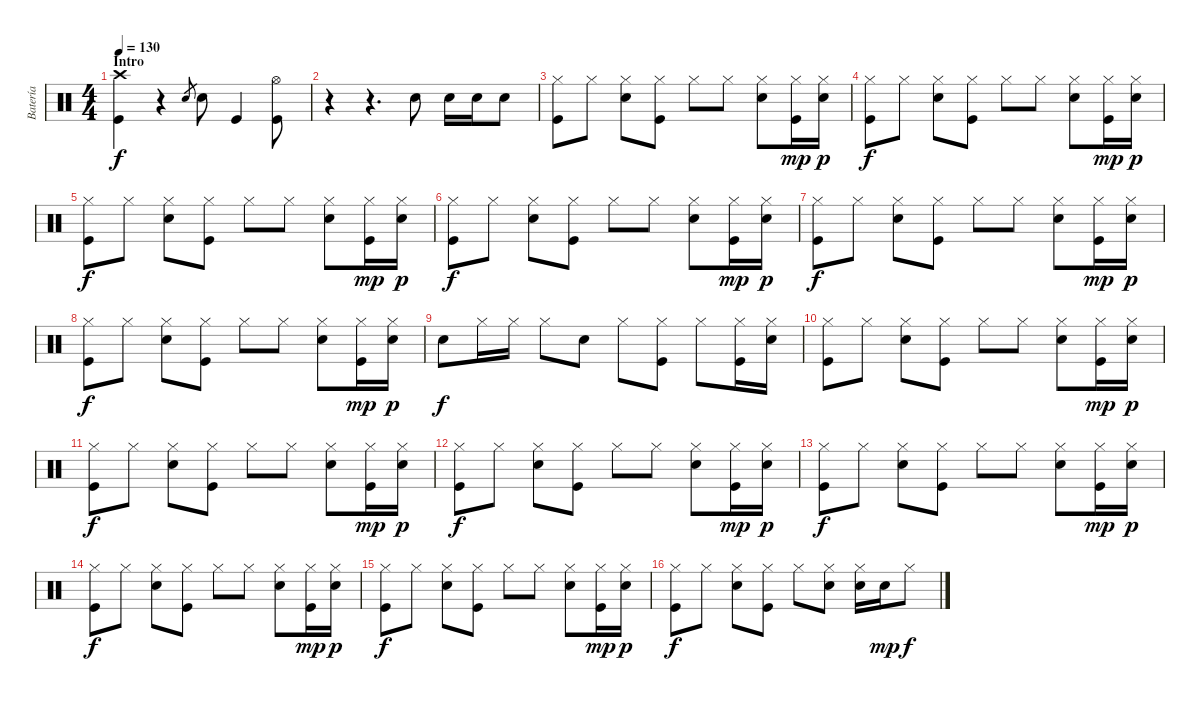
\track ("Batería" "Batería") {instrument percussion}
\staff {score}
\articulation defaults
\ts (4 4)
\section ("" "Intro")
\tempo 130
\clef neutral
\ks c
("Crash high (hit)" "Kick (hit)").4{dy f} r.4 "Snare (hit) 2".8{gr} "Snare (hit) 2".8 "Kick (hit)".4 ("Hi-Hat (open)" "Kick (hit)").8 |
r.4 r.4{d} "Snare (hit) 2".8 "Snare (hit) 2".16 "Snare (hit) 2".16 "Snare (hit) 2".8 |
("Hi-Hat (closed)" "Kick (hit)").8 "Hi-Hat (closed)".8 ("Hi-Hat (closed)" "Snare (hit) 2").8 ("Hi-Hat (closed)" "Kick (hit)").8 "Hi-Hat (closed)".8 "Hi-Hat (closed)".8 ("Hi-Hat (closed)" "Snare (hit) 2").8 ("Hi-Hat (closed)" "Kick (hit)").16{dy mp} ("Hi-Hat (closed)" "Snare (hit) 2").16{dy p} |
("Hi-Hat (closed)" "Kick (hit)").8{dy f} "Hi-Hat (closed)".8 ("Hi-Hat (closed)" "Snare (hit) 2").8 ("Hi-Hat (closed)" "Kick (hit)").8 "Hi-Hat (closed)".8 "Hi-Hat (closed)".8 ("Hi-Hat (closed)" "Snare (hit) 2").8 ("Hi-Hat (closed)" "Kick (hit)").16{dy mp} ("Hi-Hat (closed)" "Snare (hit) 2").16{dy p} |
("Hi-Hat (closed)" "Kick (hit)").8{dy f} "Hi-Hat (closed)".8 ("Hi-Hat (closed)" "Snare (hit) 2").8 ("Hi-Hat (closed)" "Kick (hit)").8 "Hi-Hat (closed)".8 "Hi-Hat (closed)".8 ("Hi-Hat (closed)" "Snare (hit) 2").8 ("Hi-Hat (closed)" "Kick (hit)").16{dy mp} ("Hi-Hat (closed)" "Snare (hit) 2").16{dy p} |
("Hi-Hat (closed)" "Kick (hit)").8{dy f} "Hi-Hat (closed)".8 ("Hi-Hat (closed)" "Snare (hit) 2").8 ("Hi-Hat (closed)" "Kick (hit)").8 "Hi-Hat (closed)".8 "Hi-Hat (closed)".8 ("Hi-Hat (closed)" "Snare (hit) 2").8 ("Hi-Hat (closed)" "Kick (hit)").16{dy mp} ("Hi-Hat (closed)" "Snare (hit) 2").16{dy p} |
("Hi-Hat (closed)" "Kick (hit)").8{dy f} "Hi-Hat (closed)".8 ("Hi-Hat (closed)" "Snare (hit) 2").8 ("Hi-Hat (closed)" "Kick (hit)").8 "Hi-Hat (closed)".8 "Hi-Hat (closed)".8 ("Hi-Hat (closed)" "Snare (hit) 2").8 ("Hi-Hat (closed)" "Kick (hit)").16{dy mp} ("Hi-Hat (closed)" "Snare (hit) 2").16{dy p} |
("Hi-Hat (closed)" "Kick (hit)").8{dy f} "Hi-Hat (closed)".8 ("Hi-Hat (closed)" "Snare (hit) 2").8 ("Hi-Hat (closed)" "Kick (hit)").8 "Hi-Hat (closed)".8 "Hi-Hat (closed)".8 ("Hi-Hat (closed)" "Snare (hit) 2").8 ("Hi-Hat (closed)" "Kick (hit)").16{dy mp} ("Hi-Hat (closed)" "Snare (hit) 2").16{dy p} |
"Snare (hit) 2".8{dy f} "Hi-Hat (closed)".16 "Hi-Hat (closed)".16 "Hi-Hat (closed)".8 "Snare (hit) 2".8 "Hi-Hat (closed)".8 ("Hi-Hat (closed)" "Kick (hit)").8 "Hi-Hat (closed)".8 ("Hi-Hat (closed)" "Kick (hit)").16 ("Hi-Hat (closed)" "Snare (hit) 2").16 |
("Hi-Hat (closed)" "Kick (hit)").8 "Hi-Hat (closed)".8 ("Hi-Hat (closed)" "Snare (hit) 2").8 ("Hi-Hat (closed)" "Kick (hit)").8 "Hi-Hat (closed)".8 "Hi-Hat (closed)".8 ("Hi-Hat (closed)" "Snare (hit) 2").8 ("Hi-Hat (closed)" "Kick (hit)").16{dy mp} ("Hi-Hat (closed)" "Snare (hit) 2").16{dy p} |
("Hi-Hat (closed)" "Kick (hit)").8{dy f} "Hi-Hat (closed)".8 ("Hi-Hat (closed)" "Snare (hit) 2").8 ("Hi-Hat (closed)" "Kick (hit)").8 "Hi-Hat (closed)".8 "Hi-Hat (closed)".8 ("Hi-Hat (closed)" "Snare (hit) 2").8 ("Hi-Hat (closed)" "Kick (hit)").16{dy mp} ("Hi-Hat (closed)" "Snare (hit) 2").16{dy p} |
("Hi-Hat (closed)" "Kick (hit)").8{dy f} "Hi-Hat (closed)".8 ("Hi-Hat (closed)" "Snare (hit) 2").8 ("Hi-Hat (closed)" "Kick (hit)").8 "Hi-Hat (closed)".8 "Hi-Hat (closed)".8 ("Hi-Hat (closed)" "Snare (hit) 2").8 ("Hi-Hat (closed)" "Kick (hit)").16{dy mp} ("Hi-Hat (closed)" "Snare (hit) 2").16{dy p} |
("Hi-Hat (closed)" "Kick (hit)").8{dy f} "Hi-Hat (closed)".8 ("Hi-Hat (closed)" "Snare (hit) 2").8 ("Hi-Hat (closed)" "Kick (hit)").8 "Hi-Hat (closed)".8 "Hi-Hat (closed)".8 ("Hi-Hat (closed)" "Snare (hit) 2").8 ("Hi-Hat (closed)" "Kick (hit)").16{dy mp} ("Hi-Hat (closed)" "Snare (hit) 2").16{dy p} |
("Hi-Hat (closed)" "Kick (hit)").8{dy f} "Hi-Hat (closed)".8 ("Hi-Hat (closed)" "Snare (hit) 2").8 ("Hi-Hat (closed)" "Kick (hit)").8 "Hi-Hat (closed)".8 "Hi-Hat (closed)".8 ("Hi-Hat (closed)" "Snare (hit) 2").8 ("Hi-Hat (closed)" "Kick (hit)").16{dy mp} ("Hi-Hat (closed)" "Snare (hit) 2").16{dy p} |
("Hi-Hat (closed)" "Kick (hit)").8{dy f} "Hi-Hat (closed)".8 ("Hi-Hat (closed)" "Snare (hit) 2").8 ("Hi-Hat (closed)" "Kick (hit)").8 "Hi-Hat (closed)".8 "Hi-Hat (closed)".8 ("Hi-Hat (closed)" "Snare (hit) 2").8 ("Hi-Hat (closed)" "Kick (hit)").16{dy mp} ("Hi-Hat (closed)" "Snare (hit) 2").16{dy p} |
("Hi-Hat (closed)" "Kick (hit)").8{dy f} "Hi-Hat (closed)".8 ("Hi-Hat (closed)" "Snare (hit) 2").8 ("Hi-Hat (closed)" "Kick (hit)").8 "Hi-Hat (closed)".8 ("Hi-Hat (closed)" "Snare (hit) 2").8 ("Hi-Hat (closed)" "Snare (hit) 2").16 "Snare (hit) 2".16{dy mp} "Hi-Hat (closed)".8{dy f}
